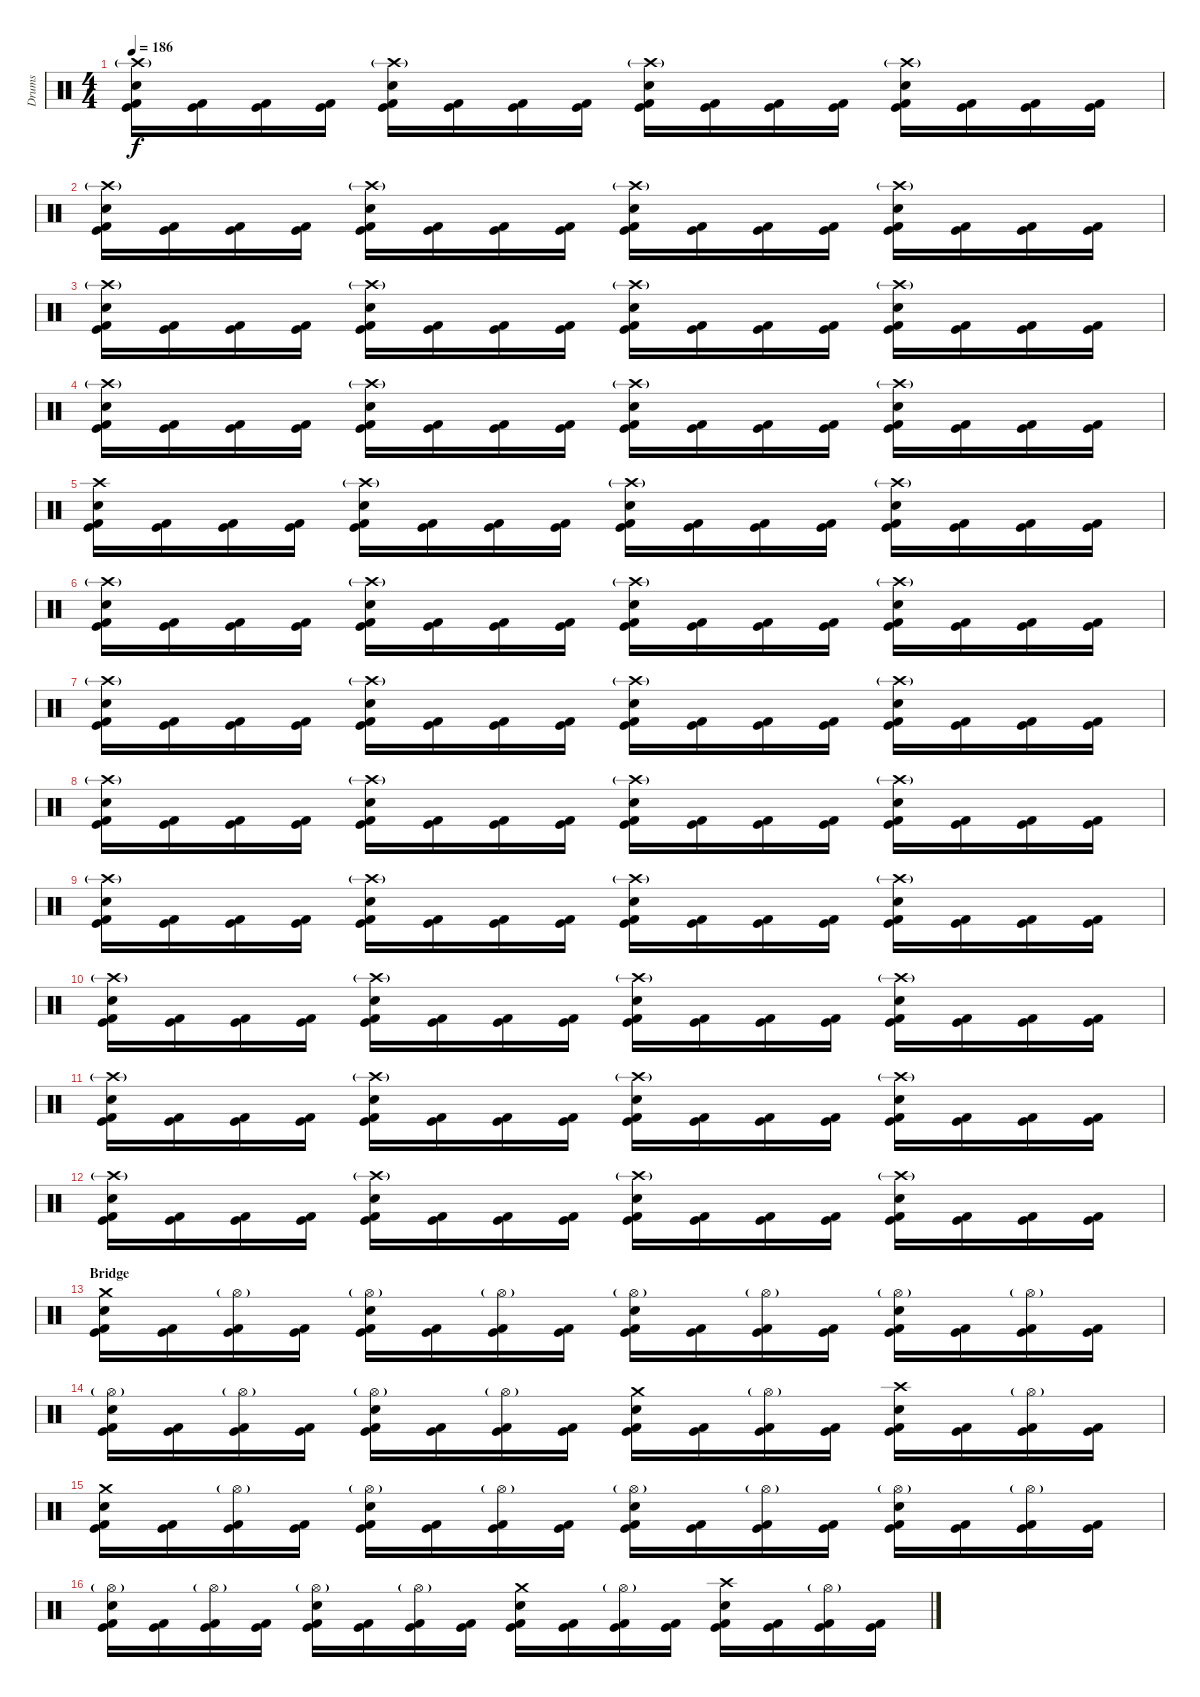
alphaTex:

\track ("Drums" "Drums") {instrument percussion}
\staff {score}
\articulation defaults
\ts (4 4)
\tempo 186
\clef neutral
\ks c
("Crash high (hit)"{g} "Electric Snare (hit)" "Kick (hit)" "Kick (hit) 2").16{dy f} ("Kick (hit)" "Kick (hit) 2").16 ("Kick (hit)" "Kick (hit) 2").16 ("Kick (hit)" "Kick (hit) 2").16 ("Crash high (hit)"{g} "Electric Snare (hit)" "Kick (hit)" "Kick (hit) 2").16 ("Kick (hit)" "Kick (hit) 2").16 ("Kick (hit)" "Kick (hit) 2").16 ("Kick (hit)" "Kick (hit) 2").16 ("Crash high (hit)"{g} "Electric Snare (hit)" "Kick (hit)" "Kick (hit) 2").16 ("Kick (hit)" "Kick (hit) 2").16 ("Kick (hit)" "Kick (hit) 2").16 ("Kick (hit)" "Kick (hit) 2").16 ("Crash high (hit)"{g} "Electric Snare (hit)" "Kick (hit)" "Kick (hit) 2").16 ("Kick (hit)" "Kick (hit) 2").16 ("Kick (hit)" "Kick (hit) 2").16 ("Kick (hit)" "Kick (hit) 2").16 |
("Crash high (hit)"{g} "Electric Snare (hit)" "Kick (hit)" "Kick (hit) 2").16 ("Kick (hit)" "Kick (hit) 2").16 ("Kick (hit)" "Kick (hit) 2").16 ("Kick (hit)" "Kick (hit) 2").16 ("Crash high (hit)"{g} "Electric Snare (hit)" "Kick (hit)" "Kick (hit) 2").16 ("Kick (hit)" "Kick (hit) 2").16 ("Kick (hit)" "Kick (hit) 2").16 ("Kick (hit)" "Kick (hit) 2").16 ("Crash high (hit)"{g} "Electric Snare (hit)" "Kick (hit)" "Kick (hit) 2").16 ("Kick (hit)" "Kick (hit) 2").16 ("Kick (hit)" "Kick (hit) 2").16 ("Kick (hit)" "Kick (hit) 2").16 ("Crash high (hit)"{g} "Electric Snare (hit)" "Kick (hit)" "Kick (hit) 2").16 ("Kick (hit)" "Kick (hit) 2").16 ("Kick (hit)" "Kick (hit) 2").16 ("Kick (hit)" "Kick (hit) 2").16 |
("Crash high (hit)"{g} "Electric Snare (hit)" "Kick (hit)" "Kick (hit) 2").16 ("Kick (hit)" "Kick (hit) 2").16 ("Kick (hit)" "Kick (hit) 2").16 ("Kick (hit)" "Kick (hit) 2").16 ("Crash high (hit)"{g} "Electric Snare (hit)" "Kick (hit)" "Kick (hit) 2").16 ("Kick (hit)" "Kick (hit) 2").16 ("Kick (hit)" "Kick (hit) 2").16 ("Kick (hit)" "Kick (hit) 2").16 ("Crash high (hit)"{g} "Electric Snare (hit)" "Kick (hit)" "Kick (hit) 2").16 ("Kick (hit)" "Kick (hit) 2").16 ("Kick (hit)" "Kick (hit) 2").16 ("Kick (hit)" "Kick (hit) 2").16 ("Crash high (hit)"{g} "Electric Snare (hit)" "Kick (hit)" "Kick (hit) 2").16 ("Kick (hit)" "Kick (hit) 2").16 ("Kick (hit)" "Kick (hit) 2").16 ("Kick (hit)" "Kick (hit) 2").16 |
("Crash high (hit)"{g} "Electric Snare (hit)" "Kick (hit)" "Kick (hit) 2").16 ("Kick (hit)" "Kick (hit) 2").16 ("Kick (hit)" "Kick (hit) 2").16 ("Kick (hit)" "Kick (hit) 2").16 ("Crash high (hit)"{g} "Electric Snare (hit)" "Kick (hit)" "Kick (hit) 2").16 ("Kick (hit)" "Kick (hit) 2").16 ("Kick (hit)" "Kick (hit) 2").16 ("Kick (hit)" "Kick (hit) 2").16 ("Crash high (hit)"{g} "Electric Snare (hit)" "Kick (hit)" "Kick (hit) 2").16 ("Kick (hit)" "Kick (hit) 2").16 ("Kick (hit)" "Kick (hit) 2").16 ("Kick (hit)" "Kick (hit) 2").16 ("Crash high (hit)"{g} "Electric Snare (hit)" "Kick (hit)" "Kick (hit) 2").16 ("Kick (hit)" "Kick (hit) 2").16 ("Kick (hit)" "Kick (hit) 2").16 ("Kick (hit)" "Kick (hit) 2").16 |
("Crash high (hit)" "Electric Snare (hit)" "Kick (hit)" "Kick (hit) 2").16 ("Kick (hit)" "Kick (hit) 2").16 ("Kick (hit)" "Kick (hit) 2").16 ("Kick (hit)" "Kick (hit) 2").16 ("Crash high (hit)"{g} "Electric Snare (hit)" "Kick (hit)" "Kick (hit) 2").16 ("Kick (hit)" "Kick (hit) 2").16 ("Kick (hit)" "Kick (hit) 2").16 ("Kick (hit)" "Kick (hit) 2").16 ("Crash high (hit)"{g} "Electric Snare (hit)" "Kick (hit)" "Kick (hit) 2").16 ("Kick (hit)" "Kick (hit) 2").16 ("Kick (hit)" "Kick (hit) 2").16 ("Kick (hit)" "Kick (hit) 2").16 ("Crash high (hit)"{g} "Electric Snare (hit)" "Kick (hit)" "Kick (hit) 2").16 ("Kick (hit)" "Kick (hit) 2").16 ("Kick (hit)" "Kick (hit) 2").16 ("Kick (hit)" "Kick (hit) 2").16 |
("Crash high (hit)"{g} "Electric Snare (hit)" "Kick (hit)" "Kick (hit) 2").16 ("Kick (hit)" "Kick (hit) 2").16 ("Kick (hit)" "Kick (hit) 2").16 ("Kick (hit)" "Kick (hit) 2").16 ("Crash high (hit)"{g} "Electric Snare (hit)" "Kick (hit)" "Kick (hit) 2").16 ("Kick (hit)" "Kick (hit) 2").16 ("Kick (hit)" "Kick (hit) 2").16 ("Kick (hit)" "Kick (hit) 2").16 ("Crash high (hit)"{g} "Electric Snare (hit)" "Kick (hit)" "Kick (hit) 2").16 ("Kick (hit)" "Kick (hit) 2").16 ("Kick (hit)" "Kick (hit) 2").16 ("Kick (hit)" "Kick (hit) 2").16 ("Crash high (hit)"{g} "Electric Snare (hit)" "Kick (hit)" "Kick (hit) 2").16 ("Kick (hit)" "Kick (hit) 2").16 ("Kick (hit)" "Kick (hit) 2").16 ("Kick (hit)" "Kick (hit) 2").16 |
("Crash high (hit)"{g} "Electric Snare (hit)" "Kick (hit)" "Kick (hit) 2").16 ("Kick (hit)" "Kick (hit) 2").16 ("Kick (hit)" "Kick (hit) 2").16 ("Kick (hit)" "Kick (hit) 2").16 ("Crash high (hit)"{g} "Electric Snare (hit)" "Kick (hit)" "Kick (hit) 2").16 ("Kick (hit)" "Kick (hit) 2").16 ("Kick (hit)" "Kick (hit) 2").16 ("Kick (hit)" "Kick (hit) 2").16 ("Crash high (hit)"{g} "Electric Snare (hit)" "Kick (hit)" "Kick (hit) 2").16 ("Kick (hit)" "Kick (hit) 2").16 ("Kick (hit)" "Kick (hit) 2").16 ("Kick (hit)" "Kick (hit) 2").16 ("Crash high (hit)"{g} "Electric Snare (hit)" "Kick (hit)" "Kick (hit) 2").16 ("Kick (hit)" "Kick (hit) 2").16 ("Kick (hit)" "Kick (hit) 2").16 ("Kick (hit)" "Kick (hit) 2").16 |
("Crash high (hit)"{g} "Electric Snare (hit)" "Kick (hit)" "Kick (hit) 2").16 ("Kick (hit)" "Kick (hit) 2").16 ("Kick (hit)" "Kick (hit) 2").16 ("Kick (hit)" "Kick (hit) 2").16 ("Crash high (hit)"{g} "Electric Snare (hit)" "Kick (hit)" "Kick (hit) 2").16 ("Kick (hit)" "Kick (hit) 2").16 ("Kick (hit)" "Kick (hit) 2").16 ("Kick (hit)" "Kick (hit) 2").16 ("Crash high (hit)"{g} "Electric Snare (hit)" "Kick (hit)" "Kick (hit) 2").16 ("Kick (hit)" "Kick (hit) 2").16 ("Kick (hit)" "Kick (hit) 2").16 ("Kick (hit)" "Kick (hit) 2").16 ("Crash high (hit)"{g} "Electric Snare (hit)" "Kick (hit)" "Kick (hit) 2").16 ("Kick (hit)" "Kick (hit) 2").16 ("Kick (hit)" "Kick (hit) 2").16 ("Kick (hit)" "Kick (hit) 2").16 |
("Crash high (hit)"{g} "Electric Snare (hit)" "Kick (hit)" "Kick (hit) 2").16 ("Kick (hit)" "Kick (hit) 2").16 ("Kick (hit)" "Kick (hit) 2").16 ("Kick (hit)" "Kick (hit) 2").16 ("Crash high (hit)"{g} "Electric Snare (hit)" "Kick (hit)" "Kick (hit) 2").16 ("Kick (hit)" "Kick (hit) 2").16 ("Kick (hit)" "Kick (hit) 2").16 ("Kick (hit)" "Kick (hit) 2").16 ("Crash high (hit)"{g} "Electric Snare (hit)" "Kick (hit)" "Kick (hit) 2").16 ("Kick (hit)" "Kick (hit) 2").16 ("Kick (hit)" "Kick (hit) 2").16 ("Kick (hit)" "Kick (hit) 2").16 ("Crash high (hit)"{g} "Electric Snare (hit)" "Kick (hit)" "Kick (hit) 2").16 ("Kick (hit)" "Kick (hit) 2").16 ("Kick (hit)" "Kick (hit) 2").16 ("Kick (hit)" "Kick (hit) 2").16 |
("Crash high (hit)"{g} "Electric Snare (hit)" "Kick (hit)" "Kick (hit) 2").16 ("Kick (hit)" "Kick (hit) 2").16 ("Kick (hit)" "Kick (hit) 2").16 ("Kick (hit)" "Kick (hit) 2").16 ("Crash high (hit)"{g} "Electric Snare (hit)" "Kick (hit)" "Kick (hit) 2").16 ("Kick (hit)" "Kick (hit) 2").16 ("Kick (hit)" "Kick (hit) 2").16 ("Kick (hit)" "Kick (hit) 2").16 ("Crash high (hit)"{g} "Electric Snare (hit)" "Kick (hit)" "Kick (hit) 2").16 ("Kick (hit)" "Kick (hit) 2").16 ("Kick (hit)" "Kick (hit) 2").16 ("Kick (hit)" "Kick (hit) 2").16 ("Crash high (hit)"{g} "Electric Snare (hit)" "Kick (hit)" "Kick (hit) 2").16 ("Kick (hit)" "Kick (hit) 2").16 ("Kick (hit)" "Kick (hit) 2").16 ("Kick (hit)" "Kick (hit) 2").16 |
("Crash high (hit)"{g} "Electric Snare (hit)" "Kick (hit)" "Kick (hit) 2").16 ("Kick (hit)" "Kick (hit) 2").16 ("Kick (hit)" "Kick (hit) 2").16 ("Kick (hit)" "Kick (hit) 2").16 ("Crash high (hit)"{g} "Electric Snare (hit)" "Kick (hit)" "Kick (hit) 2").16 ("Kick (hit)" "Kick (hit) 2").16 ("Kick (hit)" "Kick (hit) 2").16 ("Kick (hit)" "Kick (hit) 2").16 ("Crash high (hit)"{g} "Electric Snare (hit)" "Kick (hit)" "Kick (hit) 2").16 ("Kick (hit)" "Kick (hit) 2").16 ("Kick (hit)" "Kick (hit) 2").16 ("Kick (hit)" "Kick (hit) 2").16 ("Crash high (hit)"{g} "Electric Snare (hit)" "Kick (hit)" "Kick (hit) 2").16 ("Kick (hit)" "Kick (hit) 2").16 ("Kick (hit)" "Kick (hit) 2").16 ("Kick (hit)" "Kick (hit) 2").16 |
("Crash high (hit)"{g} "Electric Snare (hit)" "Kick (hit)" "Kick (hit) 2").16 ("Kick (hit)" "Kick (hit) 2").16 ("Kick (hit)" "Kick (hit) 2").16 ("Kick (hit)" "Kick (hit) 2").16 ("Crash high (hit)"{g} "Electric Snare (hit)" "Kick (hit)" "Kick (hit) 2").16 ("Kick (hit)" "Kick (hit) 2").16 ("Kick (hit)" "Kick (hit) 2").16 ("Kick (hit)" "Kick (hit) 2").16 ("Crash high (hit)"{g} "Electric Snare (hit)" "Kick (hit)" "Kick (hit) 2").16 ("Kick (hit)" "Kick (hit) 2").16 ("Kick (hit)" "Kick (hit) 2").16 ("Kick (hit)" "Kick (hit) 2").16 ("Crash high (hit)"{g} "Electric Snare (hit)" "Kick (hit)" "Kick (hit) 2").16 ("Kick (hit)" "Kick (hit) 2").16 ("Kick (hit)" "Kick (hit) 2").16 ("Kick (hit)" "Kick (hit) 2").16 |
\section ("" "Bridge")
("Crash medium (hit)" "Electric Snare (hit)" "Kick (hit)" "Kick (hit) 2").16 ("Kick (hit)" "Kick (hit) 2").16 ("Hi-Hat (open)"{g} "Kick (hit)" "Kick (hit) 2").16 ("Kick (hit)" "Kick (hit) 2").16 ("Hi-Hat (open)"{g} "Electric Snare (hit)" "Kick (hit)" "Kick (hit) 2").16 ("Kick (hit)" "Kick (hit) 2").16 ("Hi-Hat (open)"{g} "Kick (hit)" "Kick (hit) 2").16 ("Kick (hit)" "Kick (hit) 2").16 ("Hi-Hat (open)"{g} "Electric Snare (hit)" "Kick (hit)" "Kick (hit) 2").16 ("Kick (hit)" "Kick (hit) 2").16 ("Hi-Hat (open)"{g} "Kick (hit)" "Kick (hit) 2").16 ("Kick (hit)" "Kick (hit) 2").16 ("Hi-Hat (open)"{g} "Electric Snare (hit)" "Kick (hit)" "Kick (hit) 2").16 ("Kick (hit)" "Kick (hit) 2").16 ("Hi-Hat (open)"{g} "Kick (hit)" "Kick (hit) 2").16 ("Kick (hit)" "Kick (hit) 2").16 |
("Hi-Hat (open)"{g} "Electric Snare (hit)" "Kick (hit)" "Kick (hit) 2").16 ("Kick (hit)" "Kick (hit) 2").16 ("Hi-Hat (open)"{g} "Kick (hit)" "Kick (hit) 2").16 ("Kick (hit)" "Kick (hit) 2").16 ("Hi-Hat (open)"{g} "Electric Snare (hit)" "Kick (hit)" "Kick (hit) 2").16 ("Kick (hit)" "Kick (hit) 2").16 ("Hi-Hat (open)"{g} "Kick (hit)" "Kick (hit) 2").16 ("Kick (hit)" "Kick (hit) 2").16 ("Crash medium (hit)" "Electric Snare (hit)" "Kick (hit)" "Kick (hit) 2").16 ("Kick (hit)" "Kick (hit) 2").16 ("Hi-Hat (open)"{g} "Kick (hit)" "Kick (hit) 2").16 ("Kick (hit)" "Kick (hit) 2").16 ("Crash high (hit)" "Electric Snare (hit)" "Kick (hit)" "Kick (hit) 2").16 ("Kick (hit)" "Kick (hit) 2").16 ("Hi-Hat (open)"{g} "Kick (hit)" "Kick (hit) 2").16 ("Kick (hit)" "Kick (hit) 2").16 |
("Crash medium (hit)" "Electric Snare (hit)" "Kick (hit)" "Kick (hit) 2").16 ("Kick (hit)" "Kick (hit) 2").16 ("Hi-Hat (open)"{g} "Kick (hit)" "Kick (hit) 2").16 ("Kick (hit)" "Kick (hit) 2").16 ("Hi-Hat (open)"{g} "Electric Snare (hit)" "Kick (hit)" "Kick (hit) 2").16 ("Kick (hit)" "Kick (hit) 2").16 ("Hi-Hat (open)"{g} "Kick (hit)" "Kick (hit) 2").16 ("Kick (hit)" "Kick (hit) 2").16 ("Hi-Hat (open)"{g} "Electric Snare (hit)" "Kick (hit)" "Kick (hit) 2").16 ("Kick (hit)" "Kick (hit) 2").16 ("Hi-Hat (open)"{g} "Kick (hit)" "Kick (hit) 2").16 ("Kick (hit)" "Kick (hit) 2").16 ("Hi-Hat (open)"{g} "Electric Snare (hit)" "Kick (hit)" "Kick (hit) 2").16 ("Kick (hit)" "Kick (hit) 2").16 ("Hi-Hat (open)"{g} "Kick (hit)" "Kick (hit) 2").16 ("Kick (hit)" "Kick (hit) 2").16 |
("Hi-Hat (open)"{g} "Electric Snare (hit)" "Kick (hit)" "Kick (hit) 2").16 ("Kick (hit)" "Kick (hit) 2").16 ("Hi-Hat (open)"{g} "Kick (hit)" "Kick (hit) 2").16 ("Kick (hit)" "Kick (hit) 2").16 ("Hi-Hat (open)"{g} "Electric Snare (hit)" "Kick (hit)" "Kick (hit) 2").16 ("Kick (hit)" "Kick (hit) 2").16 ("Hi-Hat (open)"{g} "Kick (hit)" "Kick (hit) 2").16 ("Kick (hit)" "Kick (hit) 2").16 ("Crash medium (hit)" "Electric Snare (hit)" "Kick (hit)" "Kick (hit) 2").16 ("Kick (hit)" "Kick (hit) 2").16 ("Hi-Hat (open)"{g} "Kick (hit)" "Kick (hit) 2").16 ("Kick (hit)" "Kick (hit) 2").16 ("Crash high (hit)" "Electric Snare (hit)" "Kick (hit)" "Kick (hit) 2").16 ("Kick (hit)" "Kick (hit) 2").16 ("Hi-Hat (open)"{g} "Kick (hit)" "Kick (hit) 2").16 ("Kick (hit)" "Kick (hit) 2").16
